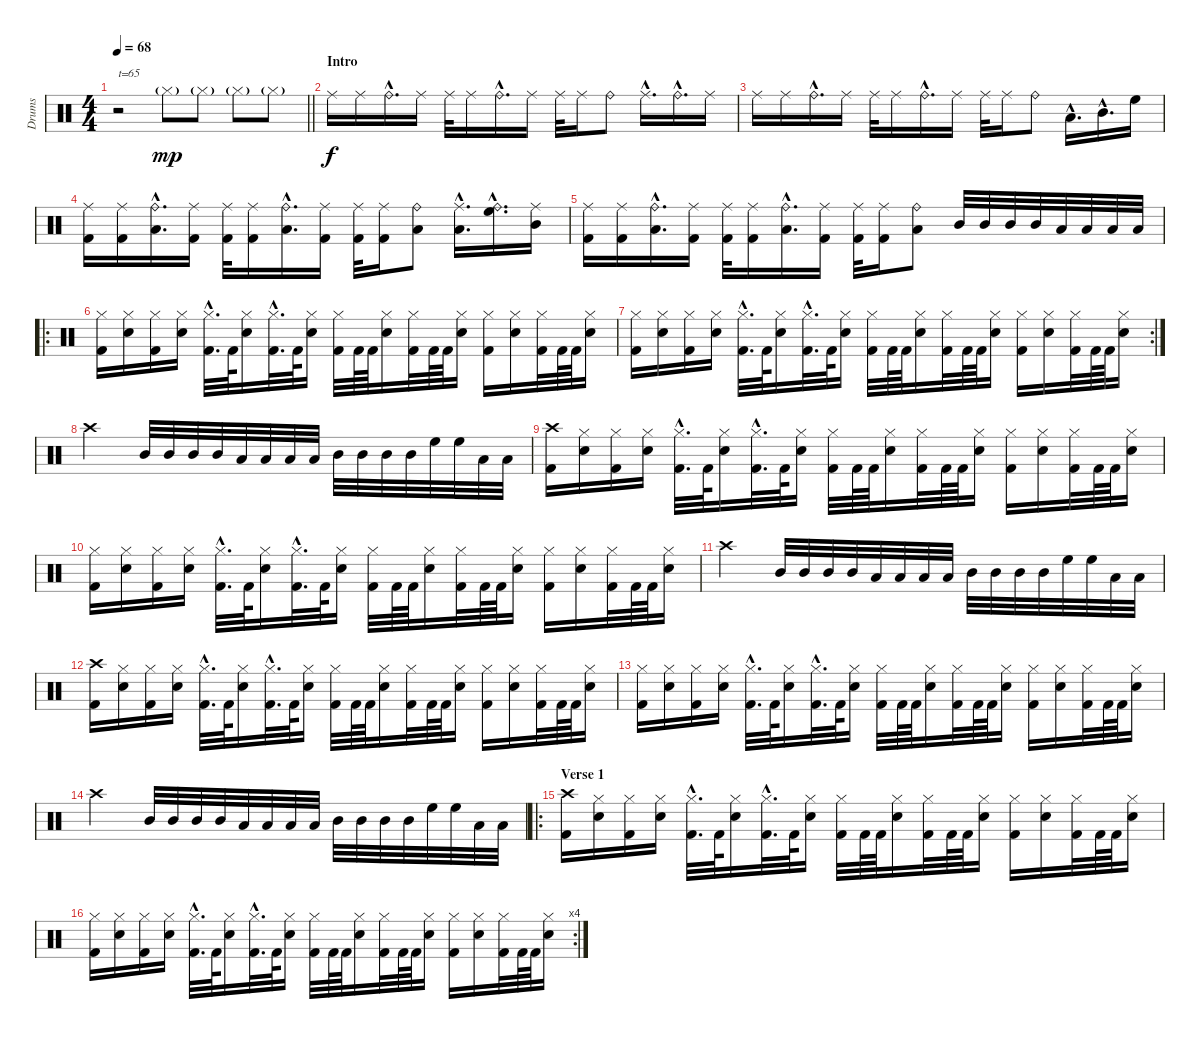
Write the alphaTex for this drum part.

\track ("Drums" "Drums") {instrument percussion}
\staff {score}
\articulation defaults
\ts (4 4)
\tempo 68
\clef neutral
\barLineRight lightlight
\ks c
r.2{txt "t=65" dy mp} "Hi-Hat (closed)"{g}.8 "Hi-Hat (closed)"{g}.8 "Hi-Hat (closed)"{g}.8 "Hi-Hat (closed)"{g}.8 |
\section ("" "Intro")
"Ride (middle)".16{dy f} "Ride (middle)".16 "Ride (bell)"{hac}.16{d} "Ride (middle)".16 "Ride (middle)".32 "Ride (middle)".16 "Ride (bell)"{hac}.16{d} "Ride (middle)".16 "Ride (middle)".32 "Ride (middle)".16 "Ride (bell)".8 "Ride (middle)"{hac}.16{d} "Ride (bell)"{hac}.16{d} "Ride (middle)".16 |
"Ride (middle)".16 "Ride (middle)".16 "Ride (bell)"{hac}.16{d} "Ride (middle)".16 "Ride (middle)".32 "Ride (middle)".16 "Ride (bell)"{hac}.16{d} "Ride (middle)".16 "Ride (middle)".32 "Ride (middle)".16 "Ride (bell)".8 "Low Tom (hit)"{hac}.16{d} "Mid Tom (hit)"{hac}.16{d} "High Floor Tom (hit)".16 |
("Ride (middle)" "Kick (hit) 2").16 ("Ride (middle)" "Kick (hit) 2").16 ("Ride (bell)"{hac} "Low Tom (hit)"{hac}).16{d} ("Ride (middle)" "Kick (hit) 2").16 ("Ride (middle)" "Kick (hit) 2").32 ("Ride (middle)" "Kick (hit) 2").16 ("Ride (bell)"{hac} "Low Tom (hit)"{hac}).16{d} ("Ride (middle)" "Kick (hit) 2").16 ("Ride (middle)" "Kick (hit) 2").32 ("Ride (middle)" "Kick (hit) 2").16 ("Ride (bell)" "Low Tom (hit)").8 ("Ride (middle)"{hac} "Low Tom (hit)"{hac}).16{d} ("Ride (bell)"{hac} "High Floor Tom (hit)"{hac}).16{d} ("Ride (middle)" "Mid Tom (hit)").16 |
("Ride (middle)" "Kick (hit) 2").16 ("Ride (middle)" "Kick (hit) 2").16 ("Ride (bell)"{hac} "Low Tom (hit)"{hac}).16{d} ("Ride (middle)" "Kick (hit) 2").16 ("Ride (middle)" "Kick (hit) 2").32 ("Ride (middle)" "Kick (hit) 2").16 ("Ride (bell)"{hac} "Low Tom (hit)"{hac}).16{d} ("Ride (middle)" "Kick (hit) 2").16 ("Ride (middle)" "Kick (hit) 2").32 ("Ride (middle)" "Kick (hit) 2").16 ("Ride (bell)" "Low Tom (hit)").8 "Mid Tom (hit)".32 "Mid Tom (hit)".32 "Mid Tom (hit)".32 "Mid Tom (hit)".32 "Low Tom (hit)".32 "Low Tom (hit)".32 "Low Tom (hit)".32 "Low Tom (hit)".32 |
\ro
("Hi-Hat (closed)" "Kick (hit) 2").16 ("Hi-Hat (closed)" "Electric Snare (hit)").16 ("Hi-Hat (closed)" "Kick (hit) 2").16 ("Hi-Hat (closed)" "Electric Snare (hit)").16 ("Hi-Hat (closed)"{hac} "Kick (hit) 2"{hac}).32{d} "Kick (hit) 2".64 ("Hi-Hat (closed)" "Electric Snare (hit)").16 ("Hi-Hat (closed)"{hac} "Kick (hit) 2"{hac}).32{d} "Kick (hit) 2".64 ("Hi-Hat (closed)" "Electric Snare (hit)").16 ("Hi-Hat (closed)" "Kick (hit) 2").32 "Kick (hit) 2".64 "Kick (hit) 2".64 ("Hi-Hat (closed)" "Electric Snare (hit)").16 ("Hi-Hat (closed)" "Kick (hit) 2").32 "Kick (hit) 2".64 "Kick (hit) 2".64 ("Hi-Hat (closed)" "Electric Snare (hit)").16 ("Hi-Hat (closed)" "Kick (hit) 2").16 ("Hi-Hat (closed)" "Electric Snare (hit)").16 ("Hi-Hat (closed)" "Kick (hit) 2").32 "Kick (hit) 2".64 "Kick (hit) 2".64 ("Hi-Hat (closed)" "Electric Snare (hit)").16 |
\rc 2
("Hi-Hat (closed)" "Kick (hit) 2").16 ("Hi-Hat (closed)" "Electric Snare (hit)").16 ("Hi-Hat (closed)" "Kick (hit) 2").16 ("Hi-Hat (closed)" "Electric Snare (hit)").16 ("Hi-Hat (closed)"{hac} "Kick (hit) 2"{hac}).32{d} "Kick (hit) 2".64 ("Hi-Hat (closed)" "Electric Snare (hit)").16 ("Hi-Hat (closed)"{hac} "Kick (hit) 2"{hac}).32{d} "Kick (hit) 2".64 ("Hi-Hat (closed)" "Electric Snare (hit)").16 ("Hi-Hat (closed)" "Kick (hit) 2").32 "Kick (hit) 2".64 "Kick (hit) 2".64 ("Hi-Hat (closed)" "Electric Snare (hit)").16 ("Hi-Hat (closed)" "Kick (hit) 2").32 "Kick (hit) 2".64 "Kick (hit) 2".64 ("Hi-Hat (closed)" "Electric Snare (hit)").16 ("Hi-Hat (closed)" "Kick (hit) 2").16 ("Hi-Hat (closed)" "Electric Snare (hit)").16 ("Hi-Hat (closed)" "Kick (hit) 2").32 "Kick (hit) 2".64 "Kick (hit) 2".64 ("Hi-Hat (closed)" "Electric Snare (hit)").16 |
"Crash high (hit)".2 "Mid Tom (hit)".32 "Mid Tom (hit)".32 "Mid Tom (hit)".32 "Mid Tom (hit)".32 "Low Tom (hit)".32 "Low Tom (hit)".32 "Low Tom (hit)".32 "Low Tom (hit)".32 "Mid Tom (hit)".32 "Mid Tom (hit)".32 "Mid Tom (hit)".32 "Mid Tom (hit)".32 "High Floor Tom (hit)".32 "High Floor Tom (hit)".32 "Low Tom (hit)".32 "Low Tom (hit)".32 |
("Crash high (hit)" "Kick (hit) 2").16 ("Hi-Hat (closed)" "Electric Snare (hit)").16 ("Hi-Hat (closed)" "Kick (hit) 2").16 ("Hi-Hat (closed)" "Electric Snare (hit)").16 ("Hi-Hat (closed)"{hac} "Kick (hit) 2"{hac}).32{d} "Kick (hit) 2".64 ("Hi-Hat (closed)" "Electric Snare (hit)").16 ("Hi-Hat (closed)"{hac} "Kick (hit) 2"{hac}).32{d} "Kick (hit) 2".64 ("Hi-Hat (closed)" "Electric Snare (hit)").16 ("Hi-Hat (closed)" "Kick (hit) 2").32 "Kick (hit) 2".64 "Kick (hit) 2".64 ("Hi-Hat (closed)" "Electric Snare (hit)").16 ("Hi-Hat (closed)" "Kick (hit) 2").32 "Kick (hit) 2".64 "Kick (hit) 2".64 ("Hi-Hat (closed)" "Electric Snare (hit)").16 ("Hi-Hat (closed)" "Kick (hit) 2").16 ("Hi-Hat (closed)" "Electric Snare (hit)").16 ("Hi-Hat (closed)" "Kick (hit) 2").32 "Kick (hit) 2".64 "Kick (hit) 2".64 ("Hi-Hat (closed)" "Electric Snare (hit)").16 |
("Hi-Hat (closed)" "Kick (hit) 2").16 ("Hi-Hat (closed)" "Electric Snare (hit)").16 ("Hi-Hat (closed)" "Kick (hit) 2").16 ("Hi-Hat (closed)" "Electric Snare (hit)").16 ("Hi-Hat (closed)"{hac} "Kick (hit) 2"{hac}).32{d} "Kick (hit) 2".64 ("Hi-Hat (closed)" "Electric Snare (hit)").16 ("Hi-Hat (closed)"{hac} "Kick (hit) 2"{hac}).32{d} "Kick (hit) 2".64 ("Hi-Hat (closed)" "Electric Snare (hit)").16 ("Hi-Hat (closed)" "Kick (hit) 2").32 "Kick (hit) 2".64 "Kick (hit) 2".64 ("Hi-Hat (closed)" "Electric Snare (hit)").16 ("Hi-Hat (closed)" "Kick (hit) 2").32 "Kick (hit) 2".64 "Kick (hit) 2".64 ("Hi-Hat (closed)" "Electric Snare (hit)").16 ("Hi-Hat (closed)" "Kick (hit) 2").16 ("Hi-Hat (closed)" "Electric Snare (hit)").16 ("Hi-Hat (closed)" "Kick (hit) 2").32 "Kick (hit) 2".64 "Kick (hit) 2".64 ("Hi-Hat (closed)" "Electric Snare (hit)").16 |
"Crash high (hit)".2 "Mid Tom (hit)".32 "Mid Tom (hit)".32 "Mid Tom (hit)".32 "Mid Tom (hit)".32 "Low Tom (hit)".32 "Low Tom (hit)".32 "Low Tom (hit)".32 "Low Tom (hit)".32 "Mid Tom (hit)".32 "Mid Tom (hit)".32 "Mid Tom (hit)".32 "Mid Tom (hit)".32 "High Floor Tom (hit)".32 "High Floor Tom (hit)".32 "Low Tom (hit)".32 "Low Tom (hit)".32 |
("Crash high (hit)" "Kick (hit) 2").16 ("Hi-Hat (closed)" "Electric Snare (hit)").16 ("Hi-Hat (closed)" "Kick (hit) 2").16 ("Hi-Hat (closed)" "Electric Snare (hit)").16 ("Hi-Hat (closed)"{hac} "Kick (hit) 2"{hac}).32{d} "Kick (hit) 2".64 ("Hi-Hat (closed)" "Electric Snare (hit)").16 ("Hi-Hat (closed)"{hac} "Kick (hit) 2"{hac}).32{d} "Kick (hit) 2".64 ("Hi-Hat (closed)" "Electric Snare (hit)").16 ("Hi-Hat (closed)" "Kick (hit) 2").32 "Kick (hit) 2".64 "Kick (hit) 2".64 ("Hi-Hat (closed)" "Electric Snare (hit)").16 ("Hi-Hat (closed)" "Kick (hit) 2").32 "Kick (hit) 2".64 "Kick (hit) 2".64 ("Hi-Hat (closed)" "Electric Snare (hit)").16 ("Hi-Hat (closed)" "Kick (hit) 2").16 ("Hi-Hat (closed)" "Electric Snare (hit)").16 ("Hi-Hat (closed)" "Kick (hit) 2").32 "Kick (hit) 2".64 "Kick (hit) 2".64 ("Hi-Hat (closed)" "Electric Snare (hit)").16 |
("Hi-Hat (closed)" "Kick (hit) 2").16 ("Hi-Hat (closed)" "Electric Snare (hit)").16 ("Hi-Hat (closed)" "Kick (hit) 2").16 ("Hi-Hat (closed)" "Electric Snare (hit)").16 ("Hi-Hat (closed)"{hac} "Kick (hit) 2"{hac}).32{d} "Kick (hit) 2".64 ("Hi-Hat (closed)" "Electric Snare (hit)").16 ("Hi-Hat (closed)"{hac} "Kick (hit) 2"{hac}).32{d} "Kick (hit) 2".64 ("Hi-Hat (closed)" "Electric Snare (hit)").16 ("Hi-Hat (closed)" "Kick (hit) 2").32 "Kick (hit) 2".64 "Kick (hit) 2".64 ("Hi-Hat (closed)" "Electric Snare (hit)").16 ("Hi-Hat (closed)" "Kick (hit) 2").32 "Kick (hit) 2".64 "Kick (hit) 2".64 ("Hi-Hat (closed)" "Electric Snare (hit)").16 ("Hi-Hat (closed)" "Kick (hit) 2").16 ("Hi-Hat (closed)" "Electric Snare (hit)").16 ("Hi-Hat (closed)" "Kick (hit) 2").32 "Kick (hit) 2".64 "Kick (hit) 2".64 ("Hi-Hat (closed)" "Electric Snare (hit)").16 |
"Crash high (hit)".2 "Mid Tom (hit)".32 "Mid Tom (hit)".32 "Mid Tom (hit)".32 "Mid Tom (hit)".32 "Low Tom (hit)".32 "Low Tom (hit)".32 "Low Tom (hit)".32 "Low Tom (hit)".32 "Mid Tom (hit)".32 "Mid Tom (hit)".32 "Mid Tom (hit)".32 "Mid Tom (hit)".32 "High Floor Tom (hit)".32 "High Floor Tom (hit)".32 "Low Tom (hit)".32 "Low Tom (hit)".32 |
\ro
\section ("" "Verse 1")
("Crash high (hit)" "Kick (hit) 2").16 ("Hi-Hat (closed)" "Electric Snare (hit)").16 ("Hi-Hat (closed)" "Kick (hit) 2").16 ("Hi-Hat (closed)" "Electric Snare (hit)").16 ("Hi-Hat (closed)"{hac} "Kick (hit) 2"{hac}).32{d} "Kick (hit) 2".64 ("Hi-Hat (closed)" "Electric Snare (hit)").16 ("Hi-Hat (closed)"{hac} "Kick (hit) 2"{hac}).32{d} "Kick (hit) 2".64 ("Hi-Hat (closed)" "Electric Snare (hit)").16 ("Hi-Hat (closed)" "Kick (hit) 2").32 "Kick (hit) 2".64 "Kick (hit) 2".64 ("Hi-Hat (closed)" "Electric Snare (hit)").16 ("Hi-Hat (closed)" "Kick (hit) 2").32 "Kick (hit) 2".64 "Kick (hit) 2".64 ("Hi-Hat (closed)" "Electric Snare (hit)").16 ("Hi-Hat (closed)" "Kick (hit) 2").16 ("Hi-Hat (closed)" "Electric Snare (hit)").16 ("Hi-Hat (closed)" "Kick (hit) 2").32 "Kick (hit) 2".64 "Kick (hit) 2".64 ("Hi-Hat (closed)" "Electric Snare (hit)").16 |
\rc 4
("Hi-Hat (closed)" "Kick (hit) 2").16 ("Hi-Hat (closed)" "Electric Snare (hit)").16 ("Hi-Hat (closed)" "Kick (hit) 2").16 ("Hi-Hat (closed)" "Electric Snare (hit)").16 ("Hi-Hat (closed)"{hac} "Kick (hit) 2"{hac}).32{d} "Kick (hit) 2".64 ("Hi-Hat (closed)" "Electric Snare (hit)").16 ("Hi-Hat (closed)"{hac} "Kick (hit) 2"{hac}).32{d} "Kick (hit) 2".64 ("Hi-Hat (closed)" "Electric Snare (hit)").16 ("Hi-Hat (closed)" "Kick (hit) 2").32 "Kick (hit) 2".64 "Kick (hit) 2".64 ("Hi-Hat (closed)" "Electric Snare (hit)").16 ("Hi-Hat (closed)" "Kick (hit) 2").32 "Kick (hit) 2".64 "Kick (hit) 2".64 ("Hi-Hat (closed)" "Electric Snare (hit)").16 ("Hi-Hat (closed)" "Kick (hit) 2").16 ("Hi-Hat (closed)" "Electric Snare (hit)").16 ("Hi-Hat (closed)" "Kick (hit) 2").32 "Kick (hit) 2".64 "Kick (hit) 2".64 ("Hi-Hat (closed)" "Electric Snare (hit)").16
